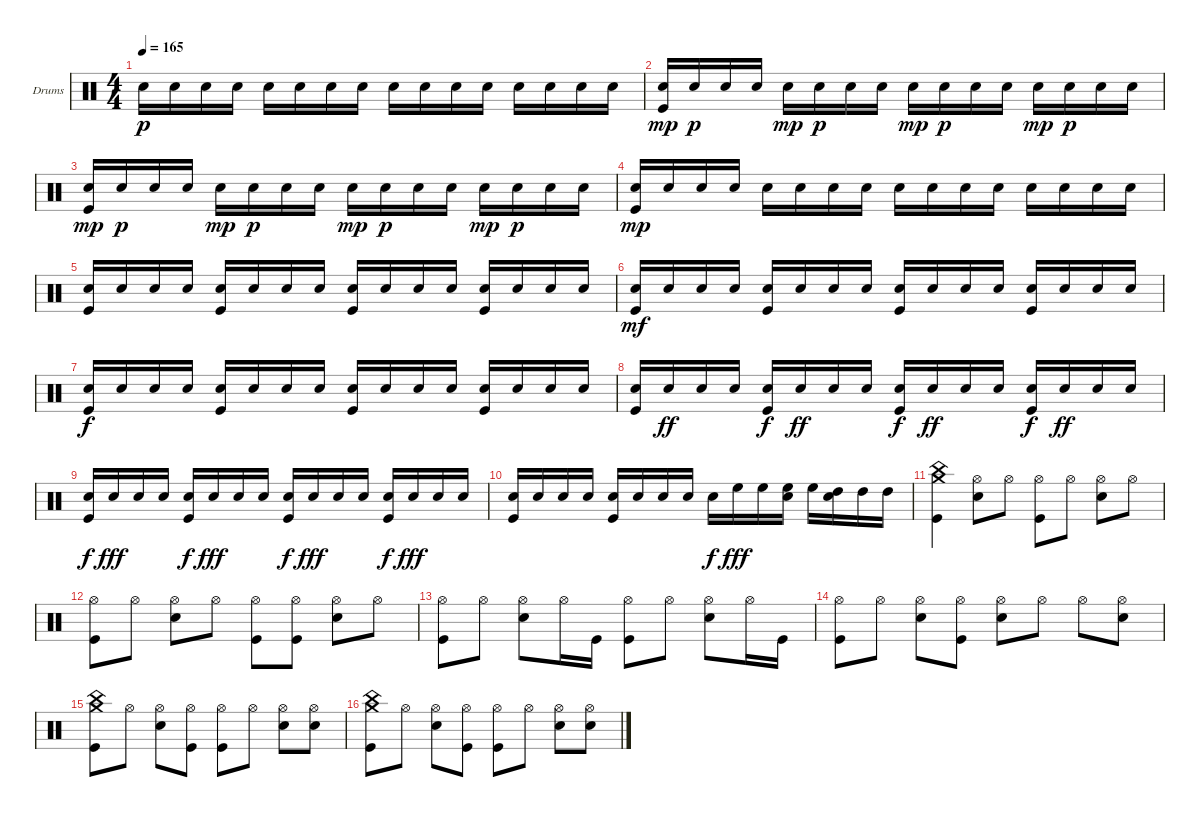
\defaultSystemsLayout 4
\bracketExtendMode groupsimilarinstruments
\firstSystemTrackNameOrientation horizontal
\otherSystemsTrackNameOrientation horizontal
\track ("Drumkit" "Drums") {instrument percussion}
\staff {score}
\articulation defaults
\ts (4 4)
\tempo 165
\clef neutral
\ks c "Snare (hit) 2".16{dy p} "Snare (hit) 2".16 "Snare (hit) 2".16 "Snare (hit) 2".16 "Snare (hit) 2".16 "Snare (hit) 2".16 "Snare (hit) 2".16 "Snare (hit) 2".16 "Snare (hit) 2".16 "Snare (hit) 2".16 "Snare (hit) 2".16 "Snare (hit) 2".16 "Snare (hit) 2".16 "Snare (hit) 2".16 "Snare (hit) 2".16 "Snare (hit) 2".16
|
("Snare (hit) 2" "Kick (hit)").16{dy mp} "Snare (hit) 2".16{dy p} "Snare (hit) 2".16 "Snare (hit) 2".16 "Snare (hit) 2".16{dy mp} "Snare (hit) 2".16{dy p} "Snare (hit) 2".16 "Snare (hit) 2".16 "Snare (hit) 2".16{dy mp} "Snare (hit) 2".16{dy p} "Snare (hit) 2".16 "Snare (hit) 2".16 "Snare (hit) 2".16{dy mp} "Snare (hit) 2".16{dy p} "Snare (hit) 2".16 "Snare (hit) 2".16 |
("Snare (hit) 2" "Kick (hit)").16{dy mp} "Snare (hit) 2".16{dy p} "Snare (hit) 2".16 "Snare (hit) 2".16 "Snare (hit) 2".16{dy mp} "Snare (hit) 2".16{dy p} "Snare (hit) 2".16 "Snare (hit) 2".16 "Snare (hit) 2".16{dy mp} "Snare (hit) 2".16{dy p} "Snare (hit) 2".16 "Snare (hit) 2".16 "Snare (hit) 2".16{dy mp} "Snare (hit) 2".16{dy p} "Snare (hit) 2".16 "Snare (hit) 2".16 |
("Snare (hit) 2" "Kick (hit)").16{dy mp} "Snare (hit) 2".16 "Snare (hit) 2".16 "Snare (hit) 2".16 "Snare (hit) 2".16 "Snare (hit) 2".16 "Snare (hit) 2".16 "Snare (hit) 2".16 "Snare (hit) 2".16 "Snare (hit) 2".16 "Snare (hit) 2".16 "Snare (hit) 2".16 "Snare (hit) 2".16 "Snare (hit) 2".16 "Snare (hit) 2".16 "Snare (hit) 2".16 |
("Snare (hit) 2" "Kick (hit)").16 "Snare (hit) 2".16 "Snare (hit) 2".16 "Snare (hit) 2".16 ("Snare (hit) 2" "Kick (hit)").16 "Snare (hit) 2".16 "Snare (hit) 2".16 "Snare (hit) 2".16 ("Snare (hit) 2" "Kick (hit)").16 "Snare (hit) 2".16 "Snare (hit) 2".16 "Snare (hit) 2".16 ("Snare (hit) 2" "Kick (hit)").16 "Snare (hit) 2".16 "Snare (hit) 2".16 "Snare (hit) 2".16 |
("Snare (hit) 2" "Kick (hit)").16{dy mf} "Snare (hit) 2".16 "Snare (hit) 2".16 "Snare (hit) 2".16 ("Snare (hit) 2" "Kick (hit)").16 "Snare (hit) 2".16 "Snare (hit) 2".16 "Snare (hit) 2".16 ("Snare (hit) 2" "Kick (hit)").16 "Snare (hit) 2".16 "Snare (hit) 2".16 "Snare (hit) 2".16 ("Snare (hit) 2" "Kick (hit)").16 "Snare (hit) 2".16 "Snare (hit) 2".16 "Snare (hit) 2".16 |
("Snare (hit) 2" "Kick (hit)").16{dy f} "Snare (hit) 2".16 "Snare (hit) 2".16 "Snare (hit) 2".16 ("Snare (hit) 2" "Kick (hit)").16 "Snare (hit) 2".16 "Snare (hit) 2".16 "Snare (hit) 2".16 ("Snare (hit) 2" "Kick (hit)").16 "Snare (hit) 2".16 "Snare (hit) 2".16 "Snare (hit) 2".16 ("Snare (hit) 2" "Kick (hit)").16 "Snare (hit) 2".16 "Snare (hit) 2".16 "Snare (hit) 2".16 |
("Snare (hit) 2" "Kick (hit)").16 "Snare (hit) 2".16{dy ff} "Snare (hit) 2".16 "Snare (hit) 2".16 ("Snare (hit) 2" "Kick (hit)").16{dy f} "Snare (hit) 2".16{dy ff} "Snare (hit) 2".16 "Snare (hit) 2".16 ("Snare (hit) 2" "Kick (hit)").16{dy f} "Snare (hit) 2".16{dy ff} "Snare (hit) 2".16 "Snare (hit) 2".16 ("Snare (hit) 2" "Kick (hit)").16{dy f} "Snare (hit) 2".16{dy ff} "Snare (hit) 2".16 "Snare (hit) 2".16 |
("Snare (hit) 2" "Kick (hit)").16{dy f} "Snare (hit) 2".16{dy fff} "Snare (hit) 2".16 "Snare (hit) 2".16 ("Snare (hit) 2" "Kick (hit)").16{dy f} "Snare (hit) 2".16{dy fff} "Snare (hit) 2".16 "Snare (hit) 2".16 ("Snare (hit) 2" "Kick (hit)").16{dy f} "Snare (hit) 2".16{dy fff} "Snare (hit) 2".16 "Snare (hit) 2".16 ("Snare (hit) 2" "Kick (hit)").16{dy f} "Snare (hit) 2".16{dy fff} "Snare (hit) 2".16 "Snare (hit) 2".16 |
("Snare (hit) 2" "Kick (hit)").16 "Snare (hit) 2".16 "Snare (hit) 2".16 "Snare (hit) 2".16 ("Snare (hit) 2" "Kick (hit)").16 "Snare (hit) 2".16 "Snare (hit) 2".16 "Snare (hit) 2".16 "Snare (hit) 2".16{dy f} "High Floor Tom (hit)".16{dy fff} "High Floor Tom (hit)".16 ("High Floor Tom (hit)" "Snare (hit) 2").16 "High Floor Tom (hit)".16 ("High Tom (hit)" "Snare (hit) 2").16 "High Tom (hit)".16 "High Tom (hit)".16 |
("China (hit)" "Crash medium (hit)" "Kick (hit)").4 ("Hi-Hat (open)" "Snare (hit) 2").8 "Hi-Hat (open)".8 ("Hi-Hat (open)" "Kick (hit)").8 "Hi-Hat (open)".8 ("Hi-Hat (open)" "Snare (hit) 2").8 "Hi-Hat (open)".8 |
("Hi-Hat (open)" "Kick (hit)").8 "Hi-Hat (open)".8 ("Hi-Hat (open)" "Snare (hit) 2").8 "Hi-Hat (open)".8 ("Hi-Hat (open)" "Kick (hit)").8 ("Hi-Hat (open)" "Kick (hit)").8 ("Hi-Hat (open)" "Snare (hit) 2").8 "Hi-Hat (open)".8 |
("Hi-Hat (open)" "Kick (hit)").8 "Hi-Hat (open)".8 ("Hi-Hat (open)" "Snare (hit) 2").8 "Hi-Hat (open)".16 "Kick (hit)".16 ("Hi-Hat (open)" "Kick (hit)").8 "Hi-Hat (open)".8 ("Hi-Hat (open)" "Snare (hit) 2").8 "Hi-Hat (open)".16 "Kick (hit)".16 |
("Hi-Hat (open)" "Kick (hit)").8 "Hi-Hat (open)".8 ("Hi-Hat (open)" "Snare (hit) 2").8 ("Hi-Hat (open)" "Kick (hit)").8 ("Hi-Hat (open)" "Snare (hit) 2").8 "Hi-Hat (open)".8 "Hi-Hat (open)".8 ("Hi-Hat (open)" "Snare (hit) 2").8 |
("Kick (hit)" "China (hit)" "Crash medium (hit)").8 "Hi-Hat (open)".8 ("Hi-Hat (open)" "Snare (hit) 2").8 ("Hi-Hat (open)" "Kick (hit)").8 ("Hi-Hat (open)" "Kick (hit)").8 "Hi-Hat (open)".8 ("Hi-Hat (open)" "Snare (hit) 2").8 ("Hi-Hat (open)" "Snare (hit) 2").8 |
("Kick (hit)" "China (hit)" "Crash medium (hit)").8 "Hi-Hat (open)".8 ("Hi-Hat (open)" "Snare (hit) 2").8 ("Hi-Hat (open)" "Kick (hit)").8 ("Hi-Hat (open)" "Kick (hit)").8 "Hi-Hat (open)".8 ("Hi-Hat (open)" "Snare (hit) 2").8 ("Hi-Hat (open)" "Snare (hit) 2").8
